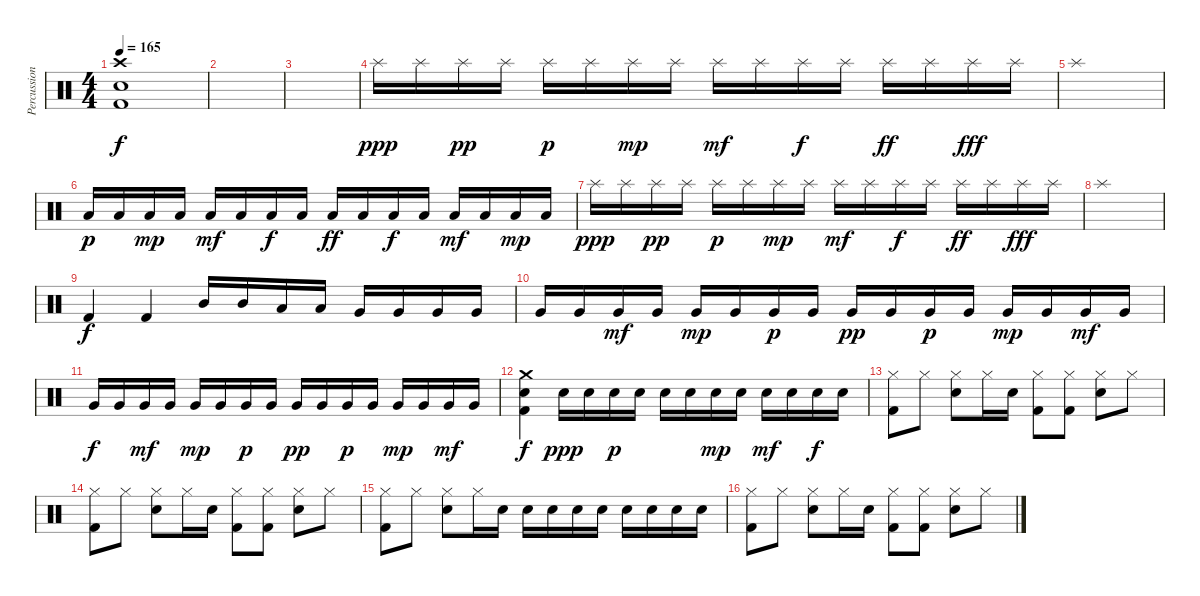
\track ("Percussions" "Percussion") {instrument percussion}
\staff {score}
\articulation defaults
\ts (4 4)
\tempo 165
\clef neutral
\ks c
("Crash high (hit)" "Snare (hit) 2" "Kick (hit) 2").1{dy f} |
|
|
"Splash (hit)".16{dy ppp} "Splash (hit)".16 "Splash (hit)".16{dy pp} "Splash (hit)".16 "Splash (hit)".16{dy p} "Splash (hit)".16 "Splash (hit)".16{dy mp} "Splash (hit)".16 "Splash (hit)".16{dy mf} "Splash (hit)".16 "Splash (hit)".16{dy f} "Splash (hit)".16 "Splash (hit)".16{dy ff} "Splash (hit)".16 "Splash (hit)".16{dy fff} "Splash (hit)".16 |
"Splash (hit)".1 |
"Low Floor Tom (hit)".16{dy p} "Low Floor Tom (hit)".16 "Low Floor Tom (hit)".16{dy mp} "Low Floor Tom (hit)".16 "Low Floor Tom (hit)".16{dy mf} "Low Floor Tom (hit)".16 "Low Floor Tom (hit)".16{dy f} "Low Floor Tom (hit)".16 "Low Floor Tom (hit)".16{dy ff} "Low Floor Tom (hit)".16 "Low Floor Tom (hit)".16{dy f} "Low Floor Tom (hit)".16 "Low Floor Tom (hit)".16{dy mf} "Low Floor Tom (hit)".16 "Low Floor Tom (hit)".16{dy mp} "Low Floor Tom (hit)".16 |
"Splash (hit)".16{dy ppp} "Splash (hit)".16 "Splash (hit)".16{dy pp} "Splash (hit)".16 "Splash (hit)".16{dy p} "Splash (hit)".16 "Splash (hit)".16{dy mp} "Splash (hit)".16 "Splash (hit)".16{dy mf} "Splash (hit)".16 "Splash (hit)".16{dy f} "Splash (hit)".16 "Splash (hit)".16{dy ff} "Splash (hit)".16 "Splash (hit)".16{dy fff} "Splash (hit)".16 |
"Splash (hit)".1 |
"Kick (hit) 2".4{dy f} "Kick (hit) 2".4 "Mid Tom (hit)".16 "Mid Tom (hit)".16 "Low Tom (hit)".16 "Low Tom (hit)".16 "Very Low Tom (hit)".16 "Very Low Tom (hit)".16 "Very Low Tom (hit)".16 "Very Low Tom (hit)".16 |
"Very Low Tom (hit)".16 "Very Low Tom (hit)".16 "Very Low Tom (hit)".16{dy mf} "Very Low Tom (hit)".16 "Very Low Tom (hit)".16{dy mp} "Very Low Tom (hit)".16 "Very Low Tom (hit)".16{dy p} "Very Low Tom (hit)".16 "Very Low Tom (hit)".16{dy pp} "Very Low Tom (hit)".16 "Very Low Tom (hit)".16{dy p} "Very Low Tom (hit)".16 "Very Low Tom (hit)".16{dy mp} "Very Low Tom (hit)".16 "Very Low Tom (hit)".16{dy mf} "Very Low Tom (hit)".16 |
"Very Low Tom (hit)".16{dy f} "Very Low Tom (hit)".16 "Very Low Tom (hit)".16{dy mf} "Very Low Tom (hit)".16 "Very Low Tom (hit)".16{dy mp} "Very Low Tom (hit)".16 "Very Low Tom (hit)".16{dy p} "Very Low Tom (hit)".16 "Very Low Tom (hit)".16{dy pp} "Very Low Tom (hit)".16 "Very Low Tom (hit)".16{dy p} "Very Low Tom (hit)".16 "Very Low Tom (hit)".16{dy mp} "Very Low Tom (hit)".16 "Very Low Tom (hit)".16{dy mf} "Very Low Tom (hit)".16 |
("Crash medium (hit)" "Snare (hit) 2" "Kick (hit) 2").4{dy f} "Snare (hit) 2".16{dy ppp} "Snare (hit) 2".16 "Snare (hit) 2".16{dy p} "Snare (hit) 2".16 "Snare (hit) 2".16 "Snare (hit) 2".16 "Snare (hit) 2".16{dy mp} "Snare (hit) 2".16 "Snare (hit) 2".16{dy mf} "Snare (hit) 2".16 "Snare (hit) 2".16{dy f} "Snare (hit) 2".16 |
("Hi-Hat (closed)" "Kick (hit) 2").8 "Hi-Hat (closed)".8 ("Hi-Hat (closed)" "Snare (hit) 2").8 "Hi-Hat (closed)".16 "Snare (hit) 2".16 ("Hi-Hat (closed)" "Kick (hit) 2").8 ("Hi-Hat (closed)" "Kick (hit) 2").8 ("Hi-Hat (closed)" "Snare (hit) 2").8 "Hi-Hat (closed)".8 |
("Hi-Hat (closed)" "Kick (hit) 2").8 "Hi-Hat (closed)".8 ("Hi-Hat (closed)" "Snare (hit) 2").8 "Hi-Hat (closed)".16 "Snare (hit) 2".16 ("Hi-Hat (closed)" "Kick (hit) 2").8 ("Hi-Hat (closed)" "Kick (hit) 2").8 ("Hi-Hat (closed)" "Snare (hit) 2").8 "Hi-Hat (closed)".8 |
("Hi-Hat (closed)" "Kick (hit) 2").8 "Hi-Hat (closed)".8 ("Hi-Hat (closed)" "Snare (hit) 2").8 "Hi-Hat (closed)".16 "Snare (hit) 2".16 "Snare (hit) 2".16 "Snare (hit) 2".16 "Snare (hit) 2".16 "Snare (hit) 2".16 "Snare (hit) 2".16 "Snare (hit) 2".16 "Snare (hit) 2".16 "Snare (hit) 2".16 |
("Hi-Hat (closed)" "Kick (hit) 2").8 "Hi-Hat (closed)".8 ("Hi-Hat (closed)" "Snare (hit) 2").8 "Hi-Hat (closed)".16 "Snare (hit) 2".16 ("Hi-Hat (closed)" "Kick (hit) 2").8 ("Hi-Hat (closed)" "Kick (hit) 2").8 ("Hi-Hat (closed)" "Snare (hit) 2").8 "Hi-Hat (closed)".8
